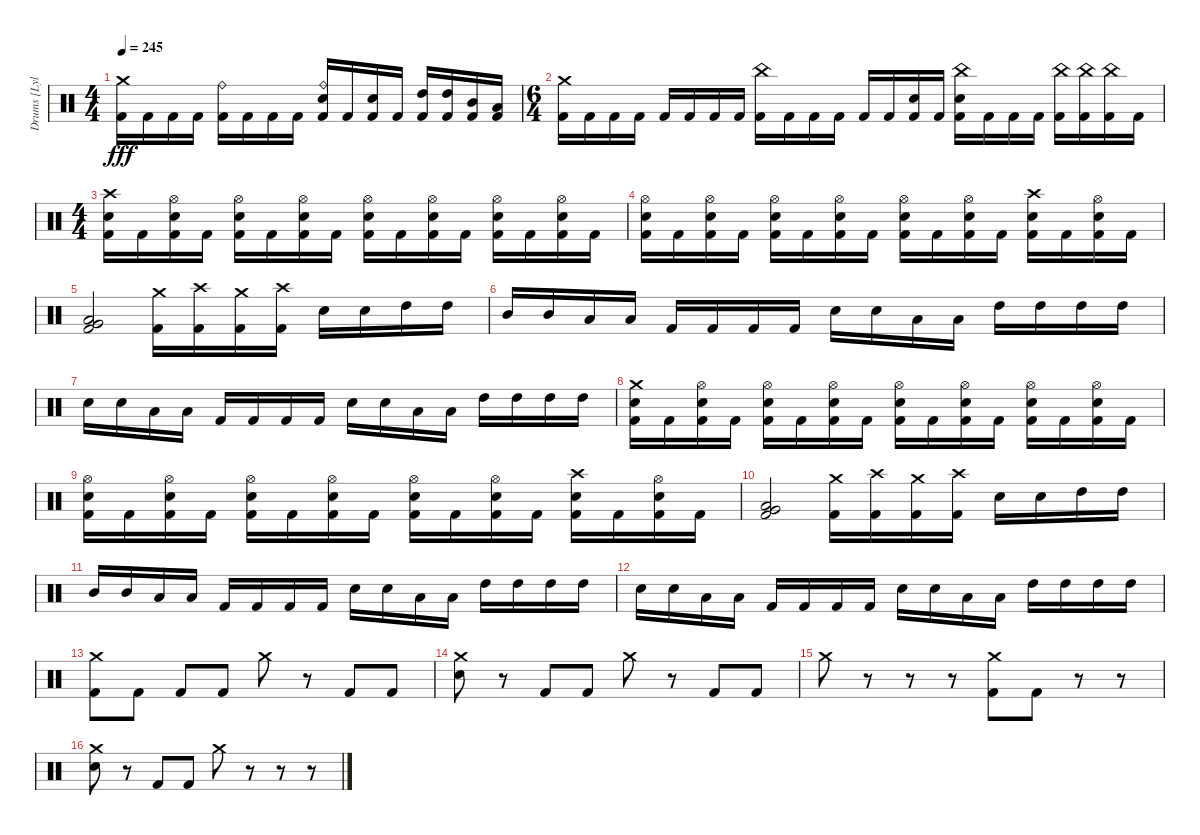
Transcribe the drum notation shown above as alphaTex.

\track ("Drums [Lyle Cooper]" "Drums [Lyl") {instrument percussion}
\staff {score}
\articulation defaults
\ts (4 4)
\tempo 245
\clef neutral
\ks c
("Crash medium (hit)" "Kick (hit) 2").16{dy fff} "Kick (hit) 2".16 "Kick (hit) 2".16 "Kick (hit) 2".16 ("Ride (bell)" "Kick (hit) 2").16 "Kick (hit) 2".16 "Kick (hit) 2".16 "Kick (hit) 2".16 ("Ride (bell)" "Electric Snare (hit)" "Kick (hit) 2").16 "Kick (hit) 2".16 ("Electric Snare (hit)" "Kick (hit) 2").16 "Kick (hit) 2".16 ("High Tom (hit)" "Kick (hit) 2").16 ("High Tom (hit)" "Kick (hit) 2").16 ("Mid Tom (hit)" "Kick (hit) 2").16 ("Low Tom (hit)" "Kick (hit) 2").16 |
\ts (6 4)
("Crash medium (hit)" "Kick (hit) 2").16 "Kick (hit) 2".16 "Kick (hit) 2".16 "Kick (hit) 2".16 "Kick (hit) 2".16 "Kick (hit) 2".16 "Kick (hit) 2".16 "Kick (hit) 2".16 ("China (hit)" "Kick (hit) 2").16 "Kick (hit) 2".16 "Kick (hit) 2".16 "Kick (hit) 2".16 "Kick (hit) 2".16 "Kick (hit) 2".16 ("Electric Snare (hit)" "Kick (hit) 2").16 "Kick (hit) 2".16 ("China (hit)" "Electric Snare (hit)" "Kick (hit) 2").16 "Kick (hit) 2".16 "Kick (hit) 2".16 "Kick (hit) 2".16 ("China (hit)" "Kick (hit) 2").16 ("China (hit)" "Kick (hit) 2").16 ("China (hit)" "Kick (hit) 2").16 "Kick (hit) 2".16 |
\ts (4 4)
("Crash high (hit)" "Electric Snare (hit)" "Kick (hit) 2").16 "Kick (hit) 2".16 ("Hi-Hat (open)" "Electric Snare (hit)" "Kick (hit) 2").16 "Kick (hit) 2".16 ("Hi-Hat (open)" "Electric Snare (hit)" "Kick (hit) 2").16 "Kick (hit) 2".16 ("Hi-Hat (open)" "Electric Snare (hit)" "Kick (hit) 2").16 "Kick (hit) 2".16 ("Hi-Hat (open)" "Electric Snare (hit)" "Kick (hit) 2").16 "Kick (hit) 2".16 ("Hi-Hat (open)" "Electric Snare (hit)" "Kick (hit) 2").16 "Kick (hit) 2".16 ("Hi-Hat (open)" "Electric Snare (hit)" "Kick (hit) 2").16 "Kick (hit) 2".16 ("Hi-Hat (open)" "Electric Snare (hit)" "Kick (hit) 2").16 "Kick (hit) 2".16 |
("Hi-Hat (open)" "Electric Snare (hit)" "Kick (hit) 2").16 "Kick (hit) 2".16 ("Hi-Hat (open)" "Electric Snare (hit)" "Kick (hit) 2").16 "Kick (hit) 2".16 ("Hi-Hat (open)" "Electric Snare (hit)" "Kick (hit) 2").16 "Kick (hit) 2".16 ("Hi-Hat (open)" "Electric Snare (hit)" "Kick (hit) 2").16 "Kick (hit) 2".16 ("Hi-Hat (open)" "Electric Snare (hit)" "Kick (hit) 2").16 "Kick (hit) 2".16 ("Hi-Hat (open)" "Electric Snare (hit)" "Kick (hit) 2").16 "Kick (hit) 2".16 ("Crash high (hit)" "Electric Snare (hit)" "Kick (hit) 2").16 "Kick (hit) 2".16 ("Hi-Hat (open)" "Electric Snare (hit)" "Kick (hit) 2").16 "Kick (hit) 2".16 |
("Low Tom (hit)" "Very Low Tom (hit)" "Kick (hit) 2").2 ("Crash medium (hit)" "Kick (hit) 2").16 ("Crash high (hit)" "Kick (hit) 2").16 ("Crash medium (hit)" "Kick (hit) 2").16 ("Crash high (hit)" "Kick (hit) 2").16 "Electric Snare (hit)".16 "Electric Snare (hit)".16 "High Tom (hit)".16 "High Tom (hit)".16 |
"Mid Tom (hit)".16 "Mid Tom (hit)".16 "Low Tom (hit)".16 "Low Tom (hit)".16 "Kick (hit) 2".16 "Kick (hit) 2".16 "Kick (hit) 2".16 "Kick (hit) 2".16 "Electric Snare (hit)".16 "Electric Snare (hit)".16 "Low Tom (hit)".16 "Low Tom (hit)".16 "High Tom (hit)".16 "High Tom (hit)".16 "High Tom (hit)".16 "High Tom (hit)".16 |
"Electric Snare (hit)".16 "Electric Snare (hit)".16 "Low Tom (hit)".16 "Low Tom (hit)".16 "Kick (hit) 2".16 "Kick (hit) 2".16 "Kick (hit) 2".16 "Kick (hit) 2".16 "Electric Snare (hit)".16 "Electric Snare (hit)".16 "Low Tom (hit)".16 "Low Tom (hit)".16 "High Tom (hit)".16 "High Tom (hit)".16 "High Tom (hit)".16 "High Tom (hit)".16 |
("Crash medium (hit)" "Electric Snare (hit)" "Kick (hit) 2").16 "Kick (hit) 2".16 ("Hi-Hat (open)" "Electric Snare (hit)" "Kick (hit) 2").16 "Kick (hit) 2".16 ("Hi-Hat (open)" "Electric Snare (hit)" "Kick (hit) 2").16 "Kick (hit) 2".16 ("Hi-Hat (open)" "Electric Snare (hit)" "Kick (hit) 2").16 "Kick (hit) 2".16 ("Hi-Hat (open)" "Electric Snare (hit)" "Kick (hit) 2").16 "Kick (hit) 2".16 ("Hi-Hat (open)" "Electric Snare (hit)" "Kick (hit) 2").16 "Kick (hit) 2".16 ("Hi-Hat (open)" "Electric Snare (hit)" "Kick (hit) 2").16 "Kick (hit) 2".16 ("Hi-Hat (open)" "Electric Snare (hit)" "Kick (hit) 2").16 "Kick (hit) 2".16 |
("Hi-Hat (open)" "Electric Snare (hit)" "Kick (hit) 2").16 "Kick (hit) 2".16 ("Hi-Hat (open)" "Electric Snare (hit)" "Kick (hit) 2").16 "Kick (hit) 2".16 ("Hi-Hat (open)" "Electric Snare (hit)" "Kick (hit) 2").16 "Kick (hit) 2".16 ("Hi-Hat (open)" "Electric Snare (hit)" "Kick (hit) 2").16 "Kick (hit) 2".16 ("Hi-Hat (open)" "Electric Snare (hit)" "Kick (hit) 2").16 "Kick (hit) 2".16 ("Hi-Hat (open)" "Electric Snare (hit)" "Kick (hit) 2").16 "Kick (hit) 2".16 ("Crash high (hit)" "Electric Snare (hit)" "Kick (hit) 2").16 "Kick (hit) 2".16 ("Hi-Hat (open)" "Electric Snare (hit)" "Kick (hit) 2").16 "Kick (hit) 2".16 |
("Low Tom (hit)" "Very Low Tom (hit)" "Kick (hit) 2").2 ("Crash medium (hit)" "Kick (hit) 2").16 ("Crash high (hit)" "Kick (hit) 2").16 ("Crash medium (hit)" "Kick (hit) 2").16 ("Crash high (hit)" "Kick (hit) 2").16 "Electric Snare (hit)".16 "Electric Snare (hit)".16 "High Tom (hit)".16 "High Tom (hit)".16 |
"Mid Tom (hit)".16 "Mid Tom (hit)".16 "Low Tom (hit)".16 "Low Tom (hit)".16 "Kick (hit) 2".16 "Kick (hit) 2".16 "Kick (hit) 2".16 "Kick (hit) 2".16 "Electric Snare (hit)".16 "Electric Snare (hit)".16 "Low Tom (hit)".16 "Low Tom (hit)".16 "High Tom (hit)".16 "High Tom (hit)".16 "High Tom (hit)".16 "High Tom (hit)".16 |
"Electric Snare (hit)".16 "Electric Snare (hit)".16 "Low Tom (hit)".16 "Low Tom (hit)".16 "Kick (hit) 2".16 "Kick (hit) 2".16 "Kick (hit) 2".16 "Kick (hit) 2".16 "Electric Snare (hit)".16 "Electric Snare (hit)".16 "Low Tom (hit)".16 "Low Tom (hit)".16 "High Tom (hit)".16 "High Tom (hit)".16 "High Tom (hit)".16 "High Tom (hit)".16 |
("Crash medium (hit)" "Kick (hit) 2").8 "Kick (hit) 2".8 "Kick (hit) 2".8 "Kick (hit) 2".8 "Crash medium (hit)".8 r.8 "Kick (hit) 2".8 "Kick (hit) 2".8 |
("Crash medium (hit)" "Electric Snare (hit)").8 r.8 "Kick (hit) 2".8 "Kick (hit) 2".8 "Crash medium (hit)".8 r.8 "Kick (hit) 2".8 "Kick (hit) 2".8 |
"Crash medium (hit)".8 r.8 r.8 r.8 ("Crash medium (hit)" "Kick (hit) 2").8 "Kick (hit) 2".8 r.8 r.8 |
("Crash medium (hit)" "Electric Snare (hit)").8 r.8 "Kick (hit) 2".8 "Kick (hit) 2".8 "Crash medium (hit)".8 r.8 r.8 r.8
